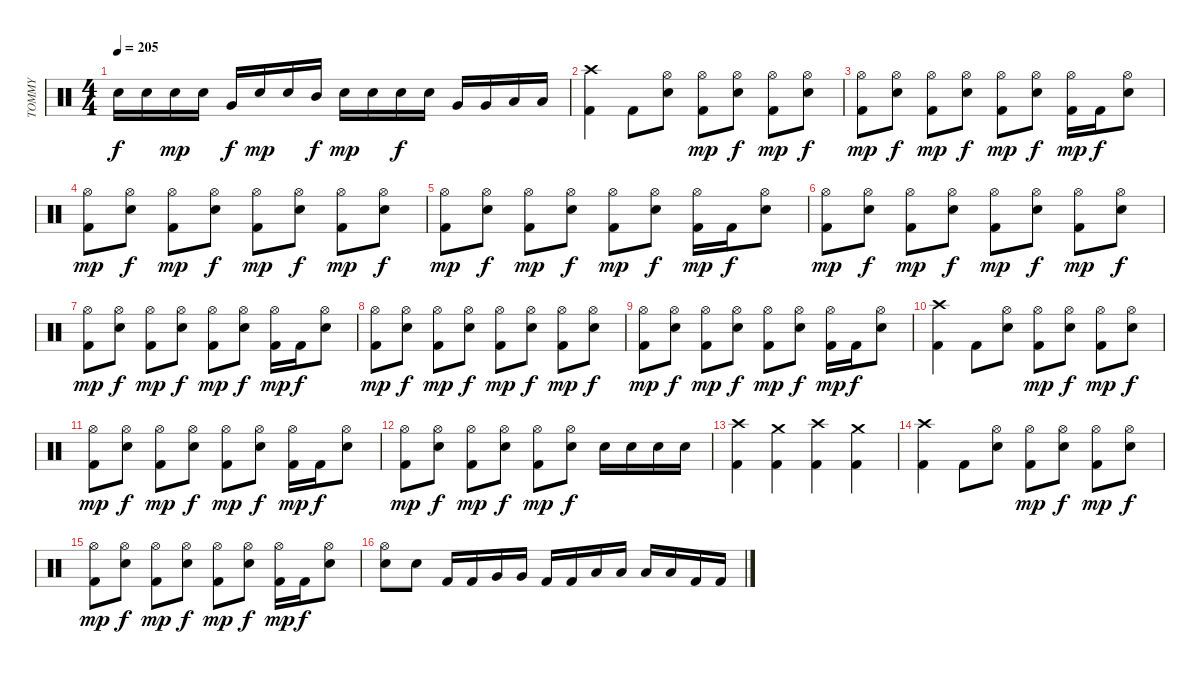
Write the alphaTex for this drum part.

\track ("TOMMY" "TOMMY") {instrument percussion}
\staff {score}
\articulation defaults
\ts (4 4)
\tempo 205
\clef neutral
\ks c "Snare (hit) 2".16{dy f} "Snare (hit) 2".16 "Snare (hit) 2".16{dy mp} "Snare (hit) 2".16 "Very Low Tom (hit)".16{dy f} "Snare (hit) 2".16{dy mp} "Snare (hit) 2".16 "Mid Tom (hit)".16{dy f} "Snare (hit) 2".16{dy mp} "Snare (hit) 2".16 "Snare (hit) 2".16{dy f} "Snare (hit) 2".16 "Very Low Tom (hit)".16 "Very Low Tom (hit)".16 "Low Floor Tom (hit)".16 "Low Floor Tom (hit)".16
|
("Kick (hit) 2" "Crash high (hit)").4 "Kick (hit) 2".8 ("Snare (hit) 2" "Hi-Hat (open)").8 ("Kick (hit) 2" "Hi-Hat (open)").8{dy mp} ("Snare (hit) 2" "Hi-Hat (open)").8{dy f} ("Kick (hit) 2" "Hi-Hat (open)").8{dy mp} ("Snare (hit) 2" "Hi-Hat (open)").8{dy f} |
("Kick (hit) 2" "Hi-Hat (open)").8{dy mp} ("Snare (hit) 2" "Hi-Hat (open)").8{dy f} ("Kick (hit) 2" "Hi-Hat (open)").8{dy mp} ("Snare (hit) 2" "Hi-Hat (open)").8{dy f} ("Kick (hit) 2" "Hi-Hat (open)").8{dy mp} ("Snare (hit) 2" "Hi-Hat (open)").8{dy f} ("Kick (hit) 2" "Hi-Hat (open)").16{dy mp} "Kick (hit) 2".16{dy f} ("Snare (hit) 2" "Hi-Hat (open)").8 |
("Kick (hit) 2" "Hi-Hat (open)").8{dy mp} ("Snare (hit) 2" "Hi-Hat (open)").8{dy f} ("Kick (hit) 2" "Hi-Hat (open)").8{dy mp} ("Snare (hit) 2" "Hi-Hat (open)").8{dy f} ("Kick (hit) 2" "Hi-Hat (open)").8{dy mp} ("Snare (hit) 2" "Hi-Hat (open)").8{dy f} ("Kick (hit) 2" "Hi-Hat (open)").8{dy mp} ("Snare (hit) 2" "Hi-Hat (open)").8{dy f} |
("Kick (hit) 2" "Hi-Hat (open)").8{dy mp} ("Snare (hit) 2" "Hi-Hat (open)").8{dy f} ("Kick (hit) 2" "Hi-Hat (open)").8{dy mp} ("Snare (hit) 2" "Hi-Hat (open)").8{dy f} ("Kick (hit) 2" "Hi-Hat (open)").8{dy mp} ("Snare (hit) 2" "Hi-Hat (open)").8{dy f} ("Kick (hit) 2" "Hi-Hat (open)").16{dy mp} "Kick (hit) 2".16{dy f} ("Snare (hit) 2" "Hi-Hat (open)").8 |
("Kick (hit) 2" "Hi-Hat (open)").8{dy mp} ("Snare (hit) 2" "Hi-Hat (open)").8{dy f} ("Kick (hit) 2" "Hi-Hat (open)").8{dy mp} ("Snare (hit) 2" "Hi-Hat (open)").8{dy f} ("Kick (hit) 2" "Hi-Hat (open)").8{dy mp} ("Snare (hit) 2" "Hi-Hat (open)").8{dy f} ("Kick (hit) 2" "Hi-Hat (open)").8{dy mp} ("Snare (hit) 2" "Hi-Hat (open)").8{dy f} |
("Kick (hit) 2" "Hi-Hat (open)").8{dy mp} ("Snare (hit) 2" "Hi-Hat (open)").8{dy f} ("Kick (hit) 2" "Hi-Hat (open)").8{dy mp} ("Snare (hit) 2" "Hi-Hat (open)").8{dy f} ("Kick (hit) 2" "Hi-Hat (open)").8{dy mp} ("Snare (hit) 2" "Hi-Hat (open)").8{dy f} ("Kick (hit) 2" "Hi-Hat (open)").16{dy mp} "Kick (hit) 2".16{dy f} ("Snare (hit) 2" "Hi-Hat (open)").8 |
("Kick (hit) 2" "Hi-Hat (open)").8{dy mp} ("Snare (hit) 2" "Hi-Hat (open)").8{dy f} ("Kick (hit) 2" "Hi-Hat (open)").8{dy mp} ("Snare (hit) 2" "Hi-Hat (open)").8{dy f} ("Kick (hit) 2" "Hi-Hat (open)").8{dy mp} ("Snare (hit) 2" "Hi-Hat (open)").8{dy f} ("Kick (hit) 2" "Hi-Hat (open)").8{dy mp} ("Snare (hit) 2" "Hi-Hat (open)").8{dy f} |
("Kick (hit) 2" "Hi-Hat (open)").8{dy mp} ("Snare (hit) 2" "Hi-Hat (open)").8{dy f} ("Kick (hit) 2" "Hi-Hat (open)").8{dy mp} ("Snare (hit) 2" "Hi-Hat (open)").8{dy f} ("Kick (hit) 2" "Hi-Hat (open)").8{dy mp} ("Snare (hit) 2" "Hi-Hat (open)").8{dy f} ("Kick (hit) 2" "Hi-Hat (open)").16{dy mp} "Kick (hit) 2".16{dy f} ("Snare (hit) 2" "Hi-Hat (open)").8 |
("Kick (hit) 2" "Crash high (hit)").4 "Kick (hit) 2".8 ("Snare (hit) 2" "Hi-Hat (open)").8 ("Kick (hit) 2" "Hi-Hat (open)").8{dy mp} ("Snare (hit) 2" "Hi-Hat (open)").8{dy f} ("Kick (hit) 2" "Hi-Hat (open)").8{dy mp} ("Snare (hit) 2" "Hi-Hat (open)").8{dy f} |
("Kick (hit) 2" "Hi-Hat (open)").8{dy mp} ("Snare (hit) 2" "Hi-Hat (open)").8{dy f} ("Kick (hit) 2" "Hi-Hat (open)").8{dy mp} ("Snare (hit) 2" "Hi-Hat (open)").8{dy f} ("Kick (hit) 2" "Hi-Hat (open)").8{dy mp} ("Snare (hit) 2" "Hi-Hat (open)").8{dy f} ("Kick (hit) 2" "Hi-Hat (open)").16{dy mp} "Kick (hit) 2".16{dy f} ("Snare (hit) 2" "Hi-Hat (open)").8 |
("Kick (hit) 2" "Hi-Hat (open)").8{dy mp} ("Snare (hit) 2" "Hi-Hat (open)").8{dy f} ("Kick (hit) 2" "Hi-Hat (open)").8{dy mp} ("Snare (hit) 2" "Hi-Hat (open)").8{dy f} ("Kick (hit) 2" "Hi-Hat (open)").8{dy mp} ("Snare (hit) 2" "Hi-Hat (open)").8{dy f} "Snare (hit) 2".16 "Snare (hit) 2".16 "Snare (hit) 2".16 "Snare (hit) 2".16 |
("Kick (hit) 2" "Crash high (hit)").4 ("Kick (hit) 2" "Crash medium (hit)").4 ("Kick (hit) 2" "Crash high (hit)").4 ("Kick (hit) 2" "Crash medium (hit)").4 |
("Kick (hit) 2" "Crash high (hit)").4 "Kick (hit) 2".8 ("Snare (hit) 2" "Hi-Hat (open)").8 ("Kick (hit) 2" "Hi-Hat (open)").8{dy mp} ("Snare (hit) 2" "Hi-Hat (open)").8{dy f} ("Kick (hit) 2" "Hi-Hat (open)").8{dy mp} ("Snare (hit) 2" "Hi-Hat (open)").8{dy f} |
("Kick (hit) 2" "Hi-Hat (open)").8{dy mp} ("Snare (hit) 2" "Hi-Hat (open)").8{dy f} ("Kick (hit) 2" "Hi-Hat (open)").8{dy mp} ("Snare (hit) 2" "Hi-Hat (open)").8{dy f} ("Kick (hit) 2" "Hi-Hat (open)").8{dy mp} ("Snare (hit) 2" "Hi-Hat (open)").8{dy f} ("Kick (hit) 2" "Hi-Hat (open)").16{dy mp} "Kick (hit) 2".16{dy f} ("Snare (hit) 2" "Hi-Hat (open)").8 |
("Snare (hit) 2" "Hi-Hat (open)").8 "Snare (hit) 2".8 "Kick (hit) 2".16 "Kick (hit) 2".16 "Very Low Tom (hit)".16 "Very Low Tom (hit)".16 "Kick (hit) 2".16 "Kick (hit) 2".16 "Low Floor Tom (hit)".16 "Low Floor Tom (hit)".16 "Low Floor Tom (hit)".16 "Low Floor Tom (hit)".16 "Kick (hit) 2".16 "Kick (hit) 2".16
